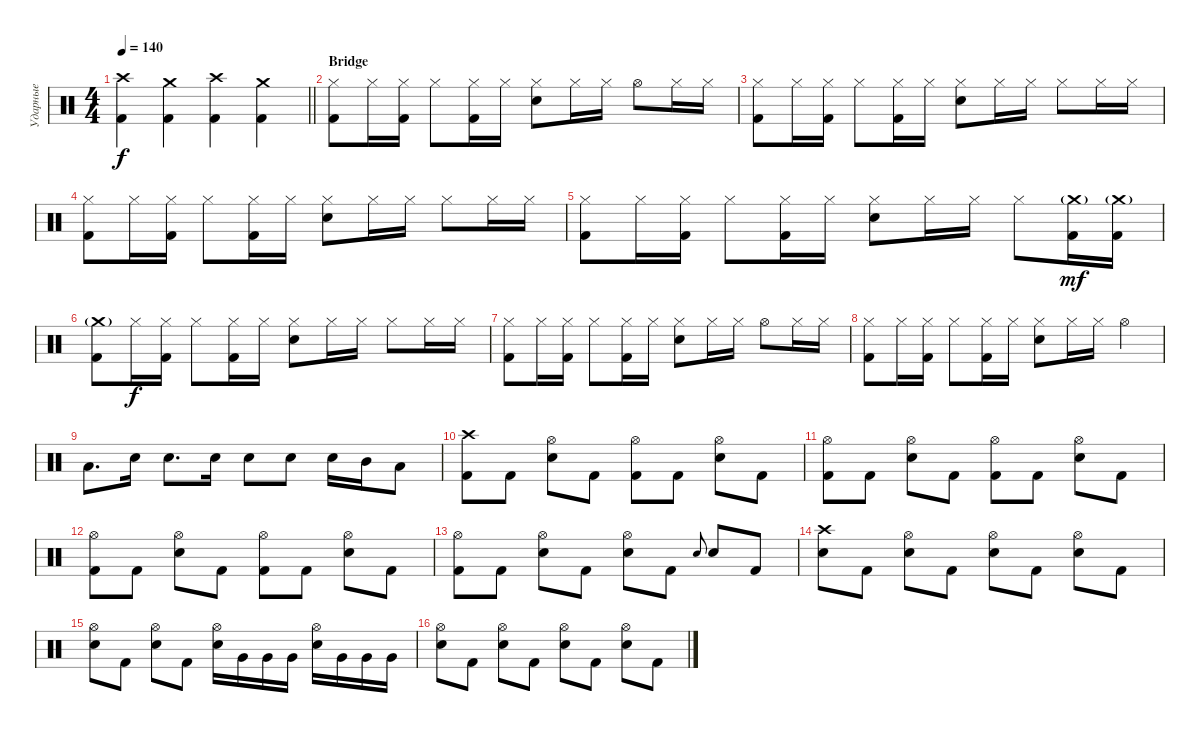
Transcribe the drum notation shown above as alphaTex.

\track ("Ударные" "Ударные") {instrument percussion}
\staff {score}
\articulation defaults
\ts (4 4)
\tempo 140
\clef neutral
\barLineRight lightlight
\ks c
("Crash high (hit)" "Kick (hit) 2").4{dy f} ("Crash medium (hit)" "Kick (hit) 2").4 ("Crash high (hit)" "Kick (hit) 2").4 ("Crash medium (hit)" "Kick (hit) 2").4 |
\section ("" "Bridge")
("Hi-Hat (closed)" "Kick (hit) 2").8 "Hi-Hat (closed)".16 ("Hi-Hat (closed)" "Kick (hit) 2").16 "Hi-Hat (closed)".8 ("Hi-Hat (closed)" "Kick (hit) 2").16 "Hi-Hat (closed)".16 ("Hi-Hat (closed)" "Snare (hit) 2").8 "Hi-Hat (closed)".16 "Hi-Hat (closed)".16 "Hi-Hat (open)".8 "Hi-Hat (closed)".16 "Hi-Hat (closed)".16 |
("Hi-Hat (closed)" "Kick (hit) 2").8 "Hi-Hat (closed)".16 ("Hi-Hat (closed)" "Kick (hit) 2").16 "Hi-Hat (closed)".8 ("Hi-Hat (closed)" "Kick (hit) 2").16 "Hi-Hat (closed)".16 ("Hi-Hat (closed)" "Snare (hit) 2").8 "Hi-Hat (closed)".16 "Hi-Hat (closed)".16 "Hi-Hat (closed)".8 "Hi-Hat (closed)".16 "Hi-Hat (closed)".16 |
("Hi-Hat (closed)" "Kick (hit) 2").8 "Hi-Hat (closed)".16 ("Hi-Hat (closed)" "Kick (hit) 2").16 "Hi-Hat (closed)".8 ("Hi-Hat (closed)" "Kick (hit) 2").16 "Hi-Hat (closed)".16 ("Hi-Hat (closed)" "Snare (hit) 2").8 "Hi-Hat (closed)".16 "Hi-Hat (closed)".16 "Hi-Hat (closed)".8 "Hi-Hat (closed)".16 "Hi-Hat (closed)".16 |
("Hi-Hat (closed)" "Kick (hit) 2").8 "Hi-Hat (closed)".16 ("Hi-Hat (closed)" "Kick (hit) 2").16 "Hi-Hat (closed)".8 ("Hi-Hat (closed)" "Kick (hit) 2").16 "Hi-Hat (closed)".16 ("Hi-Hat (closed)" "Snare (hit) 2").8 "Hi-Hat (closed)".16 "Hi-Hat (closed)".16 "Hi-Hat (closed)".8 ("Crash medium (hit)"{g} "Kick (hit) 2").16{dy mf} ("Crash medium (hit)"{g} "Kick (hit) 2").16 |
("Crash medium (hit)"{g} "Kick (hit) 2").8 "Hi-Hat (closed)".16{dy f} ("Hi-Hat (closed)" "Kick (hit) 2").16 "Hi-Hat (closed)".8 ("Hi-Hat (closed)" "Kick (hit) 2").16 "Hi-Hat (closed)".16 ("Hi-Hat (closed)" "Snare (hit) 2").8 "Hi-Hat (closed)".16 "Hi-Hat (closed)".16 "Hi-Hat (closed)".8 "Hi-Hat (closed)".16 "Hi-Hat (closed)".16 |
("Hi-Hat (closed)" "Kick (hit) 2").8 "Hi-Hat (closed)".16 ("Hi-Hat (closed)" "Kick (hit) 2").16 "Hi-Hat (closed)".8 ("Hi-Hat (closed)" "Kick (hit) 2").16 "Hi-Hat (closed)".16 ("Hi-Hat (closed)" "Snare (hit) 2").8 "Hi-Hat (closed)".16 "Hi-Hat (closed)".16 "Hi-Hat (open)".8 "Hi-Hat (closed)".16 "Hi-Hat (closed)".16 |
("Hi-Hat (closed)" "Kick (hit) 2").8 "Hi-Hat (closed)".16 ("Hi-Hat (closed)" "Kick (hit) 2").16 "Hi-Hat (closed)".8 ("Hi-Hat (closed)" "Kick (hit) 2").16 "Hi-Hat (closed)".16 ("Hi-Hat (closed)" "Snare (hit) 2").8 "Hi-Hat (closed)".16 "Hi-Hat (closed)".16 "Hi-Hat (open)".4 |
"Low Tom (hit)".8{d} "Snare (hit) 2".16 "Snare (hit) 2".8{d} "Snare (hit) 2".16 "Snare (hit) 2".8 "Snare (hit) 2".8 "Snare (hit) 2".16 "Mid Tom (hit)".16 "Low Tom (hit)".8 |
("Crash high (hit)" "Kick (hit) 2").8 "Kick (hit) 2".8 ("Hi-Hat (open)" "Snare (hit) 2").8 "Kick (hit) 2".8 ("Hi-Hat (open)" "Kick (hit) 2").8 "Kick (hit) 2".8 ("Hi-Hat (open)" "Snare (hit) 2").8 "Kick (hit) 2".8 |
("Hi-Hat (open)" "Kick (hit) 2").8 "Kick (hit) 2".8 ("Hi-Hat (open)" "Snare (hit) 2").8 "Kick (hit) 2".8 ("Hi-Hat (open)" "Kick (hit) 2").8 "Kick (hit) 2".8 ("Hi-Hat (open)" "Snare (hit) 2").8 "Kick (hit) 2".8 |
("Hi-Hat (open)" "Kick (hit) 2").8 "Kick (hit) 2".8 ("Hi-Hat (open)" "Snare (hit) 2").8 "Kick (hit) 2".8 ("Hi-Hat (open)" "Kick (hit) 2").8 "Kick (hit) 2".8 ("Hi-Hat (open)" "Snare (hit) 2").8 "Kick (hit) 2".8 |
("Hi-Hat (open)" "Kick (hit) 2").8 "Kick (hit) 2".8 ("Hi-Hat (open)" "Snare (hit) 2").8 "Kick (hit) 2".8 ("Hi-Hat (open)" "Snare (hit) 2").8 "Kick (hit) 2".8 "Snare (hit) 2".8{gr onbeat} "Snare (hit) 2".8 "Kick (hit) 2".8 |
("Crash high (hit)" "Snare (hit) 2").8 "Kick (hit) 2".8 ("Hi-Hat (open)" "Snare (hit) 2").8 "Kick (hit) 2".8 ("Hi-Hat (open)" "Snare (hit) 2").8 "Kick (hit) 2".8 ("Hi-Hat (open)" "Snare (hit) 2").8 "Kick (hit) 2".8 |
("Hi-Hat (open)" "Snare (hit) 2").8 "Kick (hit) 2".8 ("Hi-Hat (open)" "Snare (hit) 2").8 "Kick (hit) 2".8 ("Hi-Hat (open)" "Snare (hit) 2").16 "Very Low Tom (hit)".16 "Very Low Tom (hit)".16 "Very Low Tom (hit)".16 ("Hi-Hat (open)" "Snare (hit) 2").16 "Very Low Tom (hit)".16 "Very Low Tom (hit)".16 "Very Low Tom (hit)".16 |
("Hi-Hat (open)" "Snare (hit) 2").8 "Kick (hit) 2".8 ("Hi-Hat (open)" "Snare (hit) 2").8 "Kick (hit) 2".8 ("Hi-Hat (open)" "Snare (hit) 2").8 "Kick (hit) 2".8 ("Hi-Hat (open)" "Snare (hit) 2").8 "Kick (hit) 2".8
